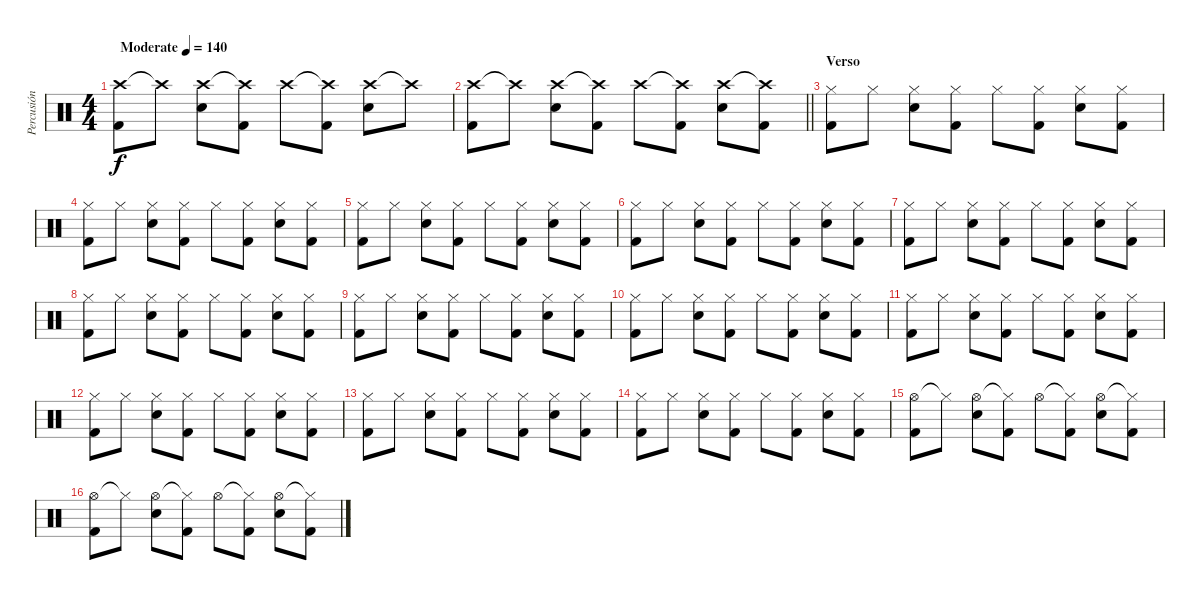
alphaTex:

\track ("Percusión" "Percusión") {instrument percussion}
\staff {score}
\articulation defaults
\ts (4 4)
\tempo (140 "Moderate")
\clef neutral
\ks c
("Crash high (hit)" "Kick (hit) 2").8{dy f} "Crash high (hit)"{t}.8 ("Crash high (hit)" "Electric Snare (hit)").8 ("Crash high (hit)"{t} "Kick (hit) 2").8 "Crash high (hit)".8 ("Crash high (hit)"{t} "Kick (hit) 2").8 ("Crash high (hit)" "Electric Snare (hit)").8 "Crash high (hit)"{t}.8 |
\barLineRight lightlight
("Crash high (hit)" "Kick (hit) 2").8 "Crash high (hit)"{t}.8 ("Crash high (hit)" "Electric Snare (hit)").8 ("Crash high (hit)"{t} "Kick (hit) 2").8 "Crash high (hit)".8 ("Crash high (hit)"{t} "Kick (hit) 2").8 ("Crash high (hit)" "Electric Snare (hit)").8 ("Crash high (hit)"{t} "Kick (hit) 2").8 |
\section ("" "Verso")
("Hi-Hat (closed)" "Kick (hit) 2").8 "Hi-Hat (closed)".8 ("Hi-Hat (closed)" "Electric Snare (hit)").8 ("Hi-Hat (closed)" "Kick (hit) 2").8 "Hi-Hat (closed)".8 ("Hi-Hat (closed)" "Kick (hit) 2").8 ("Hi-Hat (closed)" "Electric Snare (hit)").8 ("Hi-Hat (closed)" "Kick (hit) 2").8 |
("Hi-Hat (closed)" "Kick (hit) 2").8 "Hi-Hat (closed)".8 ("Hi-Hat (closed)" "Electric Snare (hit)").8 ("Hi-Hat (closed)" "Kick (hit) 2").8 "Hi-Hat (closed)".8 ("Hi-Hat (closed)" "Kick (hit) 2").8 ("Hi-Hat (closed)" "Electric Snare (hit)").8 ("Hi-Hat (closed)" "Kick (hit) 2").8 |
("Hi-Hat (closed)" "Kick (hit) 2").8 "Hi-Hat (closed)".8 ("Hi-Hat (closed)" "Electric Snare (hit)").8 ("Hi-Hat (closed)" "Kick (hit) 2").8 "Hi-Hat (closed)".8 ("Hi-Hat (closed)" "Kick (hit) 2").8 ("Hi-Hat (closed)" "Electric Snare (hit)").8 ("Hi-Hat (closed)" "Kick (hit) 2").8 |
("Hi-Hat (closed)" "Kick (hit) 2").8 "Hi-Hat (closed)".8 ("Hi-Hat (closed)" "Electric Snare (hit)").8 ("Hi-Hat (closed)" "Kick (hit) 2").8 "Hi-Hat (closed)".8 ("Hi-Hat (closed)" "Kick (hit) 2").8 ("Hi-Hat (closed)" "Electric Snare (hit)").8 ("Hi-Hat (closed)" "Kick (hit) 2").8 |
("Hi-Hat (closed)" "Kick (hit) 2").8 "Hi-Hat (closed)".8 ("Hi-Hat (closed)" "Electric Snare (hit)").8 ("Hi-Hat (closed)" "Kick (hit) 2").8 "Hi-Hat (closed)".8 ("Hi-Hat (closed)" "Kick (hit) 2").8 ("Hi-Hat (closed)" "Electric Snare (hit)").8 ("Hi-Hat (closed)" "Kick (hit) 2").8 |
("Hi-Hat (closed)" "Kick (hit) 2").8 "Hi-Hat (closed)".8 ("Hi-Hat (closed)" "Electric Snare (hit)").8 ("Hi-Hat (closed)" "Kick (hit) 2").8 "Hi-Hat (closed)".8 ("Hi-Hat (closed)" "Kick (hit) 2").8 ("Hi-Hat (closed)" "Electric Snare (hit)").8 ("Hi-Hat (closed)" "Kick (hit) 2").8 |
("Hi-Hat (closed)" "Kick (hit) 2").8 "Hi-Hat (closed)".8 ("Hi-Hat (closed)" "Electric Snare (hit)").8 ("Hi-Hat (closed)" "Kick (hit) 2").8 "Hi-Hat (closed)".8 ("Hi-Hat (closed)" "Kick (hit) 2").8 ("Hi-Hat (closed)" "Electric Snare (hit)").8 ("Hi-Hat (closed)" "Kick (hit) 2").8 |
("Hi-Hat (closed)" "Kick (hit) 2").8 "Hi-Hat (closed)".8 ("Hi-Hat (closed)" "Electric Snare (hit)").8 ("Hi-Hat (closed)" "Kick (hit) 2").8 "Hi-Hat (closed)".8 ("Hi-Hat (closed)" "Kick (hit) 2").8 ("Hi-Hat (closed)" "Electric Snare (hit)").8 ("Hi-Hat (closed)" "Kick (hit) 2").8 |
("Hi-Hat (closed)" "Kick (hit) 2").8 "Hi-Hat (closed)".8 ("Hi-Hat (closed)" "Electric Snare (hit)").8 ("Hi-Hat (closed)" "Kick (hit) 2").8 "Hi-Hat (closed)".8 ("Hi-Hat (closed)" "Kick (hit) 2").8 ("Hi-Hat (closed)" "Electric Snare (hit)").8 ("Hi-Hat (closed)" "Kick (hit) 2").8 |
("Hi-Hat (closed)" "Kick (hit) 2").8 "Hi-Hat (closed)".8 ("Hi-Hat (closed)" "Electric Snare (hit)").8 ("Hi-Hat (closed)" "Kick (hit) 2").8 "Hi-Hat (closed)".8 ("Hi-Hat (closed)" "Kick (hit) 2").8 ("Hi-Hat (closed)" "Electric Snare (hit)").8 ("Hi-Hat (closed)" "Kick (hit) 2").8 |
("Hi-Hat (closed)" "Kick (hit) 2").8 "Hi-Hat (closed)".8 ("Hi-Hat (closed)" "Electric Snare (hit)").8 ("Hi-Hat (closed)" "Kick (hit) 2").8 "Hi-Hat (closed)".8 ("Hi-Hat (closed)" "Kick (hit) 2").8 ("Hi-Hat (closed)" "Electric Snare (hit)").8 ("Hi-Hat (closed)" "Kick (hit) 2").8 |
("Hi-Hat (closed)" "Kick (hit) 2").8 "Hi-Hat (closed)".8 ("Hi-Hat (closed)" "Electric Snare (hit)").8 ("Hi-Hat (closed)" "Kick (hit) 2").8 "Hi-Hat (closed)".8 ("Hi-Hat (closed)" "Kick (hit) 2").8 ("Hi-Hat (closed)" "Electric Snare (hit)").8 ("Hi-Hat (closed)" "Kick (hit) 2").8 |
("Hi-Hat (open)" "Kick (hit) 2").8 "Hi-Hat (closed)"{t}.8 ("Hi-Hat (open)" "Electric Snare (hit)").8 ("Hi-Hat (closed)"{t} "Kick (hit) 2").8 "Hi-Hat (open)".8 ("Hi-Hat (closed)"{t} "Kick (hit) 2").8 ("Hi-Hat (open)" "Electric Snare (hit)").8 ("Hi-Hat (closed)"{t} "Kick (hit) 2").8 |
("Hi-Hat (open)" "Kick (hit) 2").8 "Hi-Hat (closed)"{t}.8 ("Hi-Hat (open)" "Electric Snare (hit)").8 ("Hi-Hat (closed)"{t} "Kick (hit) 2").8 "Hi-Hat (open)".8 ("Hi-Hat (closed)"{t} "Kick (hit) 2").8 ("Hi-Hat (open)" "Electric Snare (hit)").8 ("Hi-Hat (closed)"{t} "Kick (hit) 2").8
